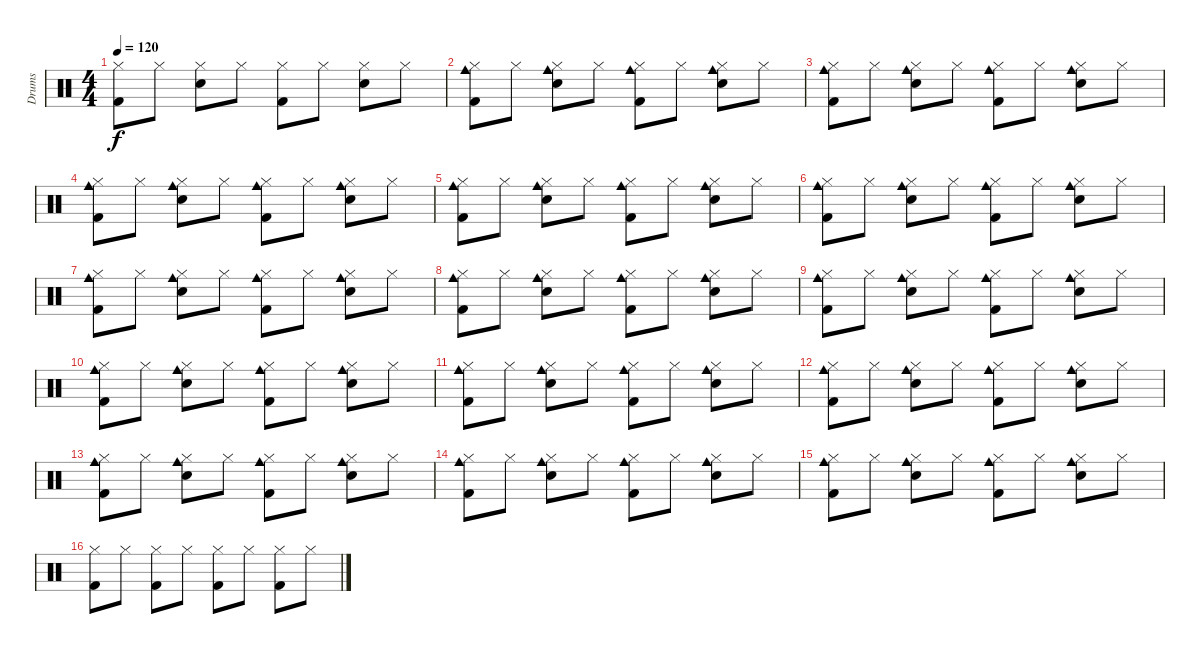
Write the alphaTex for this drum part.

\track ("Drums" "Drums") {instrument percussion}
\staff {score}
\articulation defaults
\ts (4 4)
\tempo 120
\clef neutral
\ks c
("Hi-Hat (closed)" "Kick (hit) 2").8{dy f} "Hi-Hat (closed)".8 ("Hi-Hat (closed)" "Snare (hit) 2").8 "Hi-Hat (closed)".8 ("Hi-Hat (closed)" "Kick (hit) 2").8 "Hi-Hat (closed)".8 ("Hi-Hat (closed)" "Snare (hit) 2").8 "Hi-Hat (closed)".8 |
("Hi-Hat (closed)" "Kick (hit) 2" "Cowbell medium (hit)").8 "Hi-Hat (closed)".8 ("Hi-Hat (closed)" "Snare (hit) 2" "Cowbell medium (hit)").8 "Hi-Hat (closed)".8 ("Hi-Hat (closed)" "Kick (hit) 2" "Cowbell medium (hit)").8 "Hi-Hat (closed)".8 ("Hi-Hat (closed)" "Snare (hit) 2" "Cowbell medium (hit)").8 "Hi-Hat (closed)".8 |
("Hi-Hat (closed)" "Kick (hit) 2" "Cowbell medium (hit)").8 "Hi-Hat (closed)".8 ("Hi-Hat (closed)" "Snare (hit) 2" "Cowbell medium (hit)").8 "Hi-Hat (closed)".8 ("Hi-Hat (closed)" "Kick (hit) 2" "Cowbell medium (hit)").8 "Hi-Hat (closed)".8 ("Hi-Hat (closed)" "Snare (hit) 2" "Cowbell medium (hit)").8 "Hi-Hat (closed)".8 |
("Hi-Hat (closed)" "Kick (hit) 2" "Cowbell medium (hit)").8 "Hi-Hat (closed)".8 ("Hi-Hat (closed)" "Snare (hit) 2" "Cowbell medium (hit)").8 "Hi-Hat (closed)".8 ("Hi-Hat (closed)" "Kick (hit) 2" "Cowbell medium (hit)").8 "Hi-Hat (closed)".8 ("Hi-Hat (closed)" "Snare (hit) 2" "Cowbell medium (hit)").8 "Hi-Hat (closed)".8 |
("Hi-Hat (closed)" "Kick (hit) 2" "Cowbell medium (hit)").8 "Hi-Hat (closed)".8 ("Hi-Hat (closed)" "Snare (hit) 2" "Cowbell medium (hit)").8 "Hi-Hat (closed)".8 ("Hi-Hat (closed)" "Kick (hit) 2" "Cowbell medium (hit)").8 "Hi-Hat (closed)".8 ("Hi-Hat (closed)" "Snare (hit) 2" "Cowbell medium (hit)").8 "Hi-Hat (closed)".8 |
("Hi-Hat (closed)" "Kick (hit) 2" "Cowbell medium (hit)").8 "Hi-Hat (closed)".8 ("Hi-Hat (closed)" "Snare (hit) 2" "Cowbell medium (hit)").8 "Hi-Hat (closed)".8 ("Hi-Hat (closed)" "Kick (hit) 2" "Cowbell medium (hit)").8 "Hi-Hat (closed)".8 ("Hi-Hat (closed)" "Snare (hit) 2" "Cowbell medium (hit)").8 "Hi-Hat (closed)".8 |
("Hi-Hat (closed)" "Kick (hit) 2" "Cowbell medium (hit)").8 "Hi-Hat (closed)".8 ("Hi-Hat (closed)" "Snare (hit) 2" "Cowbell medium (hit)").8 "Hi-Hat (closed)".8 ("Hi-Hat (closed)" "Kick (hit) 2" "Cowbell medium (hit)").8 "Hi-Hat (closed)".8 ("Hi-Hat (closed)" "Snare (hit) 2" "Cowbell medium (hit)").8 "Hi-Hat (closed)".8 |
("Hi-Hat (closed)" "Kick (hit) 2" "Cowbell medium (hit)").8 "Hi-Hat (closed)".8 ("Hi-Hat (closed)" "Snare (hit) 2" "Cowbell medium (hit)").8 "Hi-Hat (closed)".8 ("Hi-Hat (closed)" "Kick (hit) 2" "Cowbell medium (hit)").8 "Hi-Hat (closed)".8 ("Hi-Hat (closed)" "Snare (hit) 2" "Cowbell medium (hit)").8 "Hi-Hat (closed)".8 |
("Hi-Hat (closed)" "Kick (hit) 2" "Cowbell medium (hit)").8 "Hi-Hat (closed)".8 ("Hi-Hat (closed)" "Snare (hit) 2" "Cowbell medium (hit)").8 "Hi-Hat (closed)".8 ("Hi-Hat (closed)" "Kick (hit) 2" "Cowbell medium (hit)").8 "Hi-Hat (closed)".8 ("Hi-Hat (closed)" "Snare (hit) 2" "Cowbell medium (hit)").8 "Hi-Hat (closed)".8 |
("Hi-Hat (closed)" "Kick (hit) 2" "Cowbell medium (hit)").8 "Hi-Hat (closed)".8 ("Hi-Hat (closed)" "Snare (hit) 2" "Cowbell medium (hit)").8 "Hi-Hat (closed)".8 ("Hi-Hat (closed)" "Kick (hit) 2" "Cowbell medium (hit)").8 "Hi-Hat (closed)".8 ("Hi-Hat (closed)" "Snare (hit) 2" "Cowbell medium (hit)").8 "Hi-Hat (closed)".8 |
("Hi-Hat (closed)" "Kick (hit) 2" "Cowbell medium (hit)").8 "Hi-Hat (closed)".8 ("Hi-Hat (closed)" "Snare (hit) 2" "Cowbell medium (hit)").8 "Hi-Hat (closed)".8 ("Hi-Hat (closed)" "Kick (hit) 2" "Cowbell medium (hit)").8 "Hi-Hat (closed)".8 ("Hi-Hat (closed)" "Snare (hit) 2" "Cowbell medium (hit)").8 "Hi-Hat (closed)".8 |
("Hi-Hat (closed)" "Kick (hit) 2" "Cowbell medium (hit)").8 "Hi-Hat (closed)".8 ("Hi-Hat (closed)" "Snare (hit) 2" "Cowbell medium (hit)").8 "Hi-Hat (closed)".8 ("Hi-Hat (closed)" "Kick (hit) 2" "Cowbell medium (hit)").8 "Hi-Hat (closed)".8 ("Hi-Hat (closed)" "Snare (hit) 2" "Cowbell medium (hit)").8 "Hi-Hat (closed)".8 |
("Hi-Hat (closed)" "Kick (hit) 2" "Cowbell medium (hit)").8 "Hi-Hat (closed)".8 ("Hi-Hat (closed)" "Snare (hit) 2" "Cowbell medium (hit)").8 "Hi-Hat (closed)".8 ("Hi-Hat (closed)" "Kick (hit) 2" "Cowbell medium (hit)").8 "Hi-Hat (closed)".8 ("Hi-Hat (closed)" "Snare (hit) 2" "Cowbell medium (hit)").8 "Hi-Hat (closed)".8 |
("Hi-Hat (closed)" "Kick (hit) 2" "Cowbell medium (hit)").8 "Hi-Hat (closed)".8 ("Hi-Hat (closed)" "Snare (hit) 2" "Cowbell medium (hit)").8 "Hi-Hat (closed)".8 ("Hi-Hat (closed)" "Kick (hit) 2" "Cowbell medium (hit)").8 "Hi-Hat (closed)".8 ("Hi-Hat (closed)" "Snare (hit) 2" "Cowbell medium (hit)").8 "Hi-Hat (closed)".8 |
("Hi-Hat (closed)" "Kick (hit) 2" "Cowbell medium (hit)").8 "Hi-Hat (closed)".8 ("Hi-Hat (closed)" "Snare (hit) 2" "Cowbell medium (hit)").8 "Hi-Hat (closed)".8 ("Hi-Hat (closed)" "Kick (hit) 2" "Cowbell medium (hit)").8 "Hi-Hat (closed)".8 ("Hi-Hat (closed)" "Snare (hit) 2" "Cowbell medium (hit)").8 "Hi-Hat (closed)".8 |
("Hi-Hat (closed)" "Kick (hit) 2").8 "Hi-Hat (closed)".8 ("Hi-Hat (closed)" "Kick (hit) 2").8 "Hi-Hat (closed)".8 ("Hi-Hat (closed)" "Kick (hit) 2").8 "Hi-Hat (closed)".8 ("Hi-Hat (closed)" "Kick (hit) 2").8 "Hi-Hat (closed)".8
